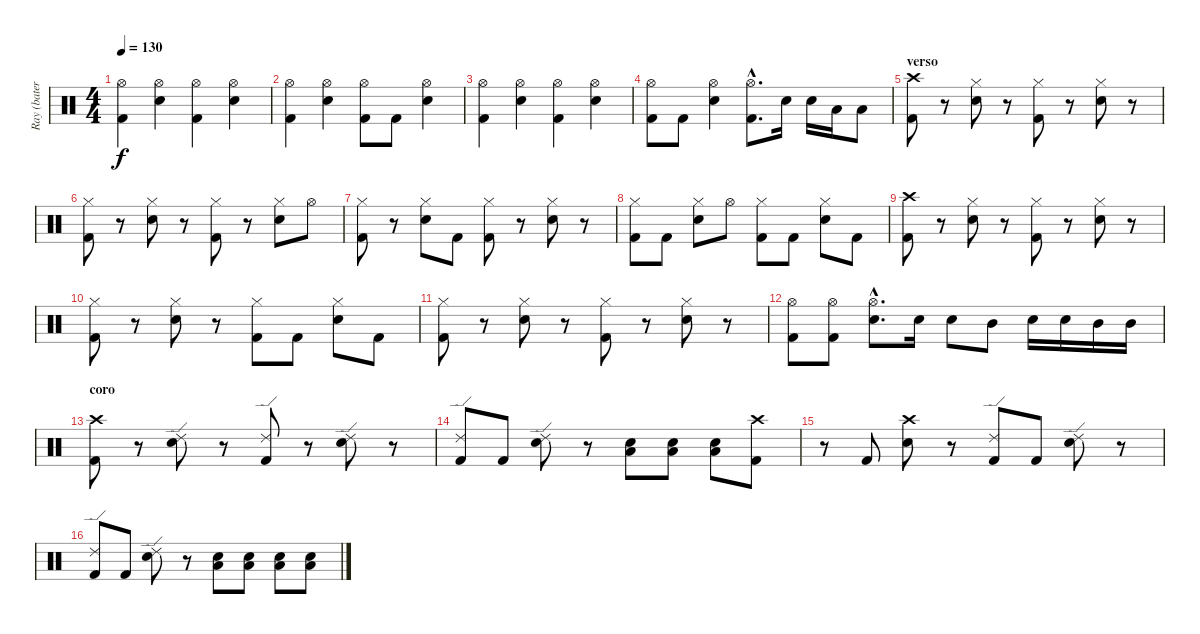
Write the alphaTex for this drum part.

\track ("Ray (batería)" "Ray (bater") {instrument percussion}
\staff {score}
\articulation defaults
\ts (4 4)
\tempo 130
\clef neutral
\ks c
("Hi-Hat (open)" "Kick (hit) 2").4{dy f} ("Hi-Hat (open)" "Snare (hit) 2").4 ("Hi-Hat (open)" "Kick (hit) 2").4 ("Hi-Hat (open)" "Snare (hit) 2").4 |
("Hi-Hat (open)" "Kick (hit) 2").4 ("Hi-Hat (open)" "Snare (hit) 2").4 ("Hi-Hat (open)" "Kick (hit) 2").8 "Kick (hit) 2".8 ("Hi-Hat (open)" "Snare (hit) 2").4 |
("Hi-Hat (open)" "Kick (hit) 2").4 ("Hi-Hat (open)" "Snare (hit) 2").4 ("Hi-Hat (open)" "Kick (hit) 2").4 ("Hi-Hat (open)" "Snare (hit) 2").4 |
("Hi-Hat (open)" "Kick (hit) 2").8 "Kick (hit) 2".8 ("Hi-Hat (open)" "Snare (hit) 2").4 ("Hi-Hat (open)"{hac} "Kick (hit) 2"{hac}).8{d} "Snare (hit) 2".16 "Snare (hit) 2".16 "Low Tom (hit)".16 "Low Tom (hit)".8 |
\section ("" "verso")
("Crash high (hit)" "Kick (hit) 2").8 r.8 ("Hi-Hat (closed)" "Snare (hit) 2").8 r.8 ("Hi-Hat (closed)" "Kick (hit) 2").8 r.8 ("Hi-Hat (closed)" "Snare (hit) 2").8 r.8 |
("Hi-Hat (closed)" "Kick (hit) 2").8 r.8 ("Hi-Hat (closed)" "Snare (hit) 2").8 r.8 ("Hi-Hat (closed)" "Kick (hit) 2").8 r.8 ("Hi-Hat (closed)" "Snare (hit) 2").8 "Hi-Hat (open)".8 |
("Hi-Hat (closed)" "Kick (hit) 2").8 r.8 ("Hi-Hat (closed)" "Snare (hit) 2").8 "Kick (hit) 2".8 ("Hi-Hat (closed)" "Kick (hit) 2").8 r.8 ("Hi-Hat (closed)" "Snare (hit) 2").8 r.8 |
("Hi-Hat (closed)" "Kick (hit) 2").8 "Kick (hit) 2".8 ("Hi-Hat (closed)" "Snare (hit) 2").8 "Hi-Hat (open)".8 ("Hi-Hat (closed)" "Kick (hit) 2").8 "Kick (hit) 2".8 ("Hi-Hat (closed)" "Snare (hit) 2").8 "Kick (hit) 2".8 |
("Crash high (hit)" "Kick (hit) 2").8 r.8 ("Hi-Hat (closed)" "Snare (hit) 2").8 r.8 ("Hi-Hat (closed)" "Kick (hit) 2").8 r.8 ("Hi-Hat (closed)" "Snare (hit) 2").8 r.8 |
("Hi-Hat (closed)" "Kick (hit) 2").8 r.8 ("Hi-Hat (closed)" "Snare (hit) 2").8 r.8 ("Hi-Hat (closed)" "Kick (hit) 2").8 "Kick (hit) 2".8 ("Hi-Hat (closed)" "Snare (hit) 2").8 "Kick (hit) 2".8 |
("Hi-Hat (closed)" "Kick (hit) 2").8 r.8 ("Hi-Hat (closed)" "Snare (hit) 2").8 r.8 ("Hi-Hat (closed)" "Kick (hit) 2").8 r.8 ("Hi-Hat (closed)" "Snare (hit) 2").8 r.8 |
("Hi-Hat (open)" "Kick (hit) 2").8 ("Hi-Hat (open)" "Kick (hit) 2").8 ("Hi-Hat (open)"{hac} "Snare (hit) 2"{hac}).8{d} "Snare (hit) 2".16 "Snare (hit) 2".8 "Mid Tom (hit)".8 "Snare (hit) 2".16 "Snare (hit) 2".16 "Mid Tom (hit)".16 "Mid Tom (hit)".16 |
\section ("" "coro")
("Crash high (hit)" "Kick (hit) 2").8 r.8 ("Ride (edge) 2" "Snare (hit) 2").8 r.8 ("Ride (edge) 2" "Kick (hit) 2").8 r.8 ("Ride (edge) 2" "Snare (hit) 2").8 r.8 |
("Ride (edge) 2" "Kick (hit) 2").8 "Kick (hit) 2".8 ("Ride (edge) 2" "Snare (hit) 2").8 r.8 ("Snare (hit) 2" "Low Tom (hit)").8 ("Snare (hit) 2" "Low Tom (hit)").8 ("Snare (hit) 2" "Low Tom (hit)").8 ("Crash high (hit)" "Kick (hit) 2").8 |
r.8 "Kick (hit) 2".8 ("Crash high (hit)" "Snare (hit) 2").8 r.8 ("Ride (edge) 2" "Kick (hit) 2").8 "Kick (hit) 2".8 ("Ride (edge) 2" "Snare (hit) 2").8 r.8 |
("Ride (edge) 2" "Kick (hit) 2").8 "Kick (hit) 2".8 ("Ride (edge) 2" "Snare (hit) 2").8 r.8 ("Snare (hit) 2" "Low Tom (hit)").8 ("Snare (hit) 2" "Low Tom (hit)").8 ("Snare (hit) 2" "Low Tom (hit)").8 ("Snare (hit) 2" "Low Tom (hit)").8
